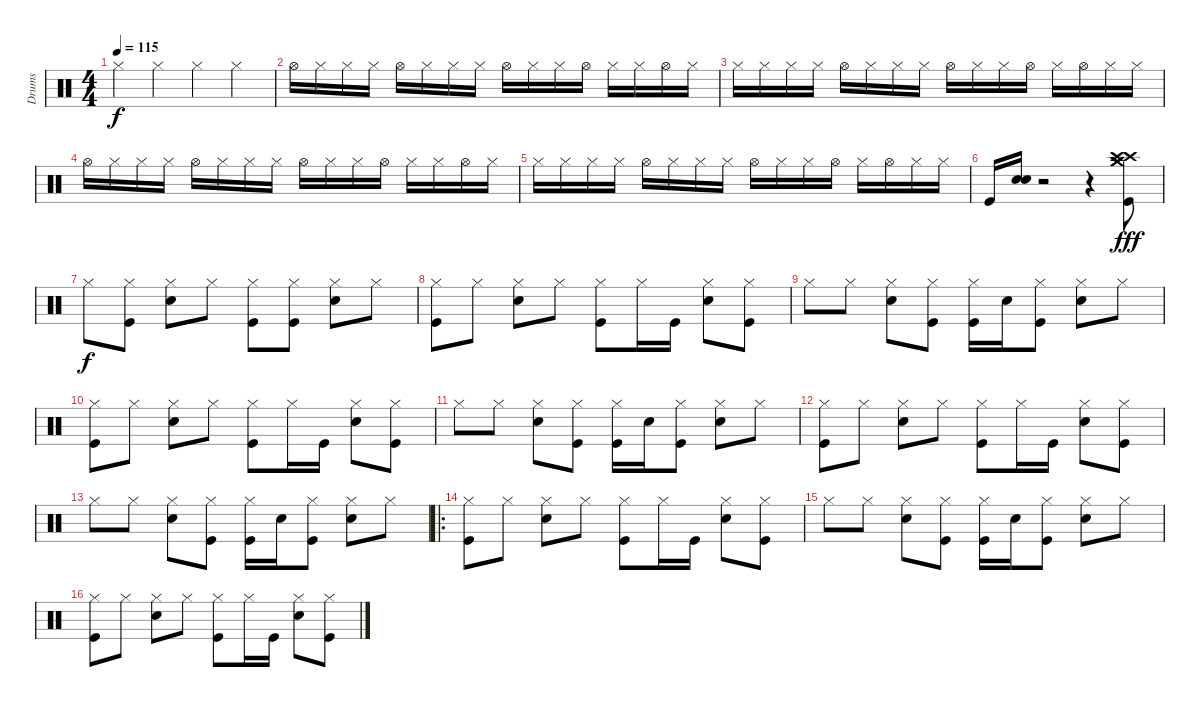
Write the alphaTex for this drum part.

\track ("Drums" "Drums") {instrument percussion}
\staff {score}
\articulation defaults
\ts (4 4)
\tempo 115
\clef neutral
\ks c "Hi-Hat (closed)".4{dy f} "Hi-Hat (closed)".4 "Hi-Hat (closed)".4 "Hi-Hat (closed)".4
|
"Hi-Hat (open)".16 "Hi-Hat (closed)".16 "Hi-Hat (closed)".16 "Hi-Hat (closed)".16 "Hi-Hat (open)".16 "Hi-Hat (closed)".16 "Hi-Hat (closed)".16 "Hi-Hat (closed)".16 "Hi-Hat (open)".16 "Hi-Hat (closed)".16 "Hi-Hat (closed)".16 "Hi-Hat (open)".16 "Hi-Hat (closed)".16 "Hi-Hat (closed)".16 "Hi-Hat (open)".16 "Hi-Hat (closed)".16 |
"Hi-Hat (closed)".16 "Hi-Hat (closed)".16 "Hi-Hat (closed)".16 "Hi-Hat (closed)".16 "Hi-Hat (open)".16 "Hi-Hat (closed)".16 "Hi-Hat (closed)".16 "Hi-Hat (closed)".16 "Hi-Hat (open)".16 "Hi-Hat (closed)".16 "Hi-Hat (closed)".16 "Hi-Hat (open)".16 "Hi-Hat (closed)".16 "Hi-Hat (open)".16 "Hi-Hat (closed)".16 "Hi-Hat (closed)".16 |
"Hi-Hat (open)".16 "Hi-Hat (closed)".16 "Hi-Hat (closed)".16 "Hi-Hat (closed)".16 "Hi-Hat (open)".16 "Hi-Hat (closed)".16 "Hi-Hat (closed)".16 "Hi-Hat (closed)".16 "Hi-Hat (open)".16 "Hi-Hat (closed)".16 "Hi-Hat (closed)".16 "Hi-Hat (open)".16 "Hi-Hat (closed)".16 "Hi-Hat (closed)".16 "Hi-Hat (open)".16 "Hi-Hat (closed)".16 |
"Hi-Hat (closed)".16 "Hi-Hat (closed)".16 "Hi-Hat (closed)".16 "Hi-Hat (closed)".16 "Hi-Hat (open)".16 "Hi-Hat (closed)".16 "Hi-Hat (closed)".16 "Hi-Hat (closed)".16 "Hi-Hat (open)".16 "Hi-Hat (closed)".16 "Hi-Hat (closed)".16 "Hi-Hat (open)".16 "Hi-Hat (closed)".16 "Hi-Hat (open)".16 "Hi-Hat (closed)".16 "Hi-Hat (closed)".16 |
"Kick (hit)".16 ("Snare (hit) 2" "Snare (hit) 2").16 r.2 r.4 ("Crash high (hit)" "Crash medium (hit)" "Crash medium (hit)" "Crash high (hit)" "Kick (hit)").8{dy fff} |
"Hi-Hat (closed)".8{dy f} ("Hi-Hat (closed)" "Kick (hit)").8 ("Hi-Hat (closed)" "Snare (hit) 2").8 "Hi-Hat (closed)".8 ("Hi-Hat (closed)" "Kick (hit)").8 ("Hi-Hat (closed)" "Kick (hit)").8 ("Hi-Hat (closed)" "Snare (hit) 2").8 "Hi-Hat (closed)".8 |
("Hi-Hat (closed)" "Kick (hit)").8 "Hi-Hat (closed)".8 ("Hi-Hat (closed)" "Snare (hit) 2").8 "Hi-Hat (closed)".8 ("Hi-Hat (closed)" "Kick (hit)").8 "Hi-Hat (closed)".16 "Kick (hit)".16 ("Hi-Hat (closed)" "Snare (hit) 2").8 ("Hi-Hat (closed)" "Kick (hit)").8 |
"Hi-Hat (closed)".8 "Hi-Hat (closed)".8 ("Hi-Hat (closed)" "Snare (hit) 2").8 ("Hi-Hat (closed)" "Kick (hit)").8 ("Hi-Hat (closed)" "Kick (hit)").16 "Snare (hit) 2".16 ("Hi-Hat (closed)" "Kick (hit)").8 ("Hi-Hat (closed)" "Snare (hit) 2").8 "Hi-Hat (closed)".8 |
("Hi-Hat (closed)" "Kick (hit)").8 "Hi-Hat (closed)".8 ("Hi-Hat (closed)" "Snare (hit) 2").8 "Hi-Hat (closed)".8 ("Hi-Hat (closed)" "Kick (hit)").8 "Hi-Hat (closed)".16 "Kick (hit)".16 ("Hi-Hat (closed)" "Snare (hit) 2").8 ("Hi-Hat (closed)" "Kick (hit)").8 |
"Hi-Hat (closed)".8 "Hi-Hat (closed)".8 ("Hi-Hat (closed)" "Snare (hit) 2").8 ("Hi-Hat (closed)" "Kick (hit)").8 ("Hi-Hat (closed)" "Kick (hit)").16 "Snare (hit) 2".16 ("Hi-Hat (closed)" "Kick (hit)").8 ("Hi-Hat (closed)" "Snare (hit) 2").8 "Hi-Hat (closed)".8 |
("Hi-Hat (closed)" "Kick (hit)").8 "Hi-Hat (closed)".8 ("Hi-Hat (closed)" "Snare (hit) 2").8 "Hi-Hat (closed)".8 ("Hi-Hat (closed)" "Kick (hit)").8 "Hi-Hat (closed)".16 "Kick (hit)".16 ("Hi-Hat (closed)" "Snare (hit) 2").8 ("Hi-Hat (closed)" "Kick (hit)").8 |
"Hi-Hat (closed)".8 "Hi-Hat (closed)".8 ("Hi-Hat (closed)" "Snare (hit) 2").8 ("Hi-Hat (closed)" "Kick (hit)").8 ("Hi-Hat (closed)" "Kick (hit)").16 "Snare (hit) 2".16 ("Hi-Hat (closed)" "Kick (hit)").8 ("Hi-Hat (closed)" "Snare (hit) 2").8 "Hi-Hat (closed)".8 |
\ro
("Hi-Hat (closed)" "Kick (hit)").8 "Hi-Hat (closed)".8 ("Hi-Hat (closed)" "Snare (hit) 2").8 "Hi-Hat (closed)".8 ("Hi-Hat (closed)" "Kick (hit)").8 "Hi-Hat (closed)".16 "Kick (hit)".16 ("Hi-Hat (closed)" "Snare (hit) 2").8 ("Hi-Hat (closed)" "Kick (hit)").8 |
"Hi-Hat (closed)".8 "Hi-Hat (closed)".8 ("Hi-Hat (closed)" "Snare (hit) 2").8 ("Hi-Hat (closed)" "Kick (hit)").8 ("Hi-Hat (closed)" "Kick (hit)").16 "Snare (hit) 2".16 ("Hi-Hat (closed)" "Kick (hit)").8 ("Hi-Hat (closed)" "Snare (hit) 2").8 "Hi-Hat (closed)".8 |
("Hi-Hat (closed)" "Kick (hit)").8 "Hi-Hat (closed)".8 ("Hi-Hat (closed)" "Snare (hit) 2").8 "Hi-Hat (closed)".8 ("Hi-Hat (closed)" "Kick (hit)").8 "Hi-Hat (closed)".16 "Kick (hit)".16 ("Hi-Hat (closed)" "Snare (hit) 2").8 ("Hi-Hat (closed)" "Kick (hit)").8
